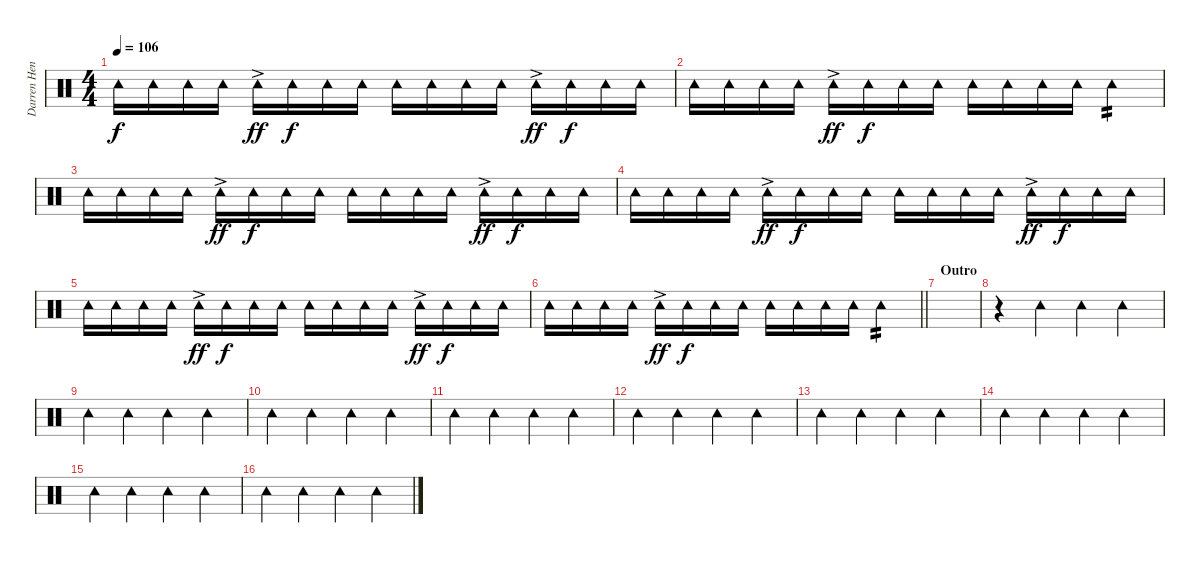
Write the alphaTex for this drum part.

\track ("Darren Henley [Percussion]" "Darren Hen") {instrument percussion}
\staff {score}
\articulation defaults
\ts (4 4)
\tempo 106
\clef neutral
\ks c "Tambourine (hit)".16{dy f} "Tambourine (hit)".16 "Tambourine (hit)".16 "Tambourine (hit)".16 "Tambourine (hit)"{ac}.16{dy ff} "Tambourine (hit)".16{dy f} "Tambourine (hit)".16 "Tambourine (hit)".16 "Tambourine (hit)".16 "Tambourine (hit)".16 "Tambourine (hit)".16 "Tambourine (hit)".16 "Tambourine (hit)"{ac}.16{dy ff} "Tambourine (hit)".16{dy f} "Tambourine (hit)".16 "Tambourine (hit)".16
|
"Tambourine (hit)".16 "Tambourine (hit)".16 "Tambourine (hit)".16 "Tambourine (hit)".16 "Tambourine (hit)"{ac}.16{dy ff} "Tambourine (hit)".16{dy f} "Tambourine (hit)".16 "Tambourine (hit)".16 "Tambourine (hit)".16 "Tambourine (hit)".16 "Tambourine (hit)".16 "Tambourine (hit)".16 "Tambourine (hit)".4{tp 2} |
"Tambourine (hit)".16 "Tambourine (hit)".16 "Tambourine (hit)".16 "Tambourine (hit)".16 "Tambourine (hit)"{ac}.16{dy ff} "Tambourine (hit)".16{dy f} "Tambourine (hit)".16 "Tambourine (hit)".16 "Tambourine (hit)".16 "Tambourine (hit)".16 "Tambourine (hit)".16 "Tambourine (hit)".16 "Tambourine (hit)"{ac}.16{dy ff} "Tambourine (hit)".16{dy f} "Tambourine (hit)".16 "Tambourine (hit)".16 |
"Tambourine (hit)".16 "Tambourine (hit)".16 "Tambourine (hit)".16 "Tambourine (hit)".16 "Tambourine (hit)"{ac}.16{dy ff} "Tambourine (hit)".16{dy f} "Tambourine (hit)".16 "Tambourine (hit)".16 "Tambourine (hit)".16 "Tambourine (hit)".16 "Tambourine (hit)".16 "Tambourine (hit)".16 "Tambourine (hit)"{ac}.16{dy ff} "Tambourine (hit)".16{dy f} "Tambourine (hit)".16 "Tambourine (hit)".16 |
"Tambourine (hit)".16 "Tambourine (hit)".16 "Tambourine (hit)".16 "Tambourine (hit)".16 "Tambourine (hit)"{ac}.16{dy ff} "Tambourine (hit)".16{dy f} "Tambourine (hit)".16 "Tambourine (hit)".16 "Tambourine (hit)".16 "Tambourine (hit)".16 "Tambourine (hit)".16 "Tambourine (hit)".16 "Tambourine (hit)"{ac}.16{dy ff} "Tambourine (hit)".16{dy f} "Tambourine (hit)".16 "Tambourine (hit)".16 |
\barLineRight lightlight "Tambourine (hit)".16 "Tambourine (hit)".16 "Tambourine (hit)".16 "Tambourine (hit)".16 "Tambourine (hit)"{ac}.16{dy ff} "Tambourine (hit)".16{dy f} "Tambourine (hit)".16 "Tambourine (hit)".16 "Tambourine (hit)".16 "Tambourine (hit)".16 "Tambourine (hit)".16 "Tambourine (hit)".16 "Tambourine (hit)".4{tp 2}
|
\section ("" "Outro")
|
r.4 "Tambourine (hit)".4 "Tambourine (hit)".4 "Tambourine (hit)".4 |
"Tambourine (hit)".4 "Tambourine (hit)".4 "Tambourine (hit)".4 "Tambourine (hit)".4 |
"Tambourine (hit)".4 "Tambourine (hit)".4 "Tambourine (hit)".4 "Tambourine (hit)".4 |
"Tambourine (hit)".4 "Tambourine (hit)".4 "Tambourine (hit)".4 "Tambourine (hit)".4 |
"Tambourine (hit)".4 "Tambourine (hit)".4 "Tambourine (hit)".4 "Tambourine (hit)".4 |
"Tambourine (hit)".4 "Tambourine (hit)".4 "Tambourine (hit)".4 "Tambourine (hit)".4 |
"Tambourine (hit)".4 "Tambourine (hit)".4 "Tambourine (hit)".4 "Tambourine (hit)".4 |
"Tambourine (hit)".4 "Tambourine (hit)".4 "Tambourine (hit)".4 "Tambourine (hit)".4 |
"Tambourine (hit)".4 "Tambourine (hit)".4 "Tambourine (hit)".4 "Tambourine (hit)".4
